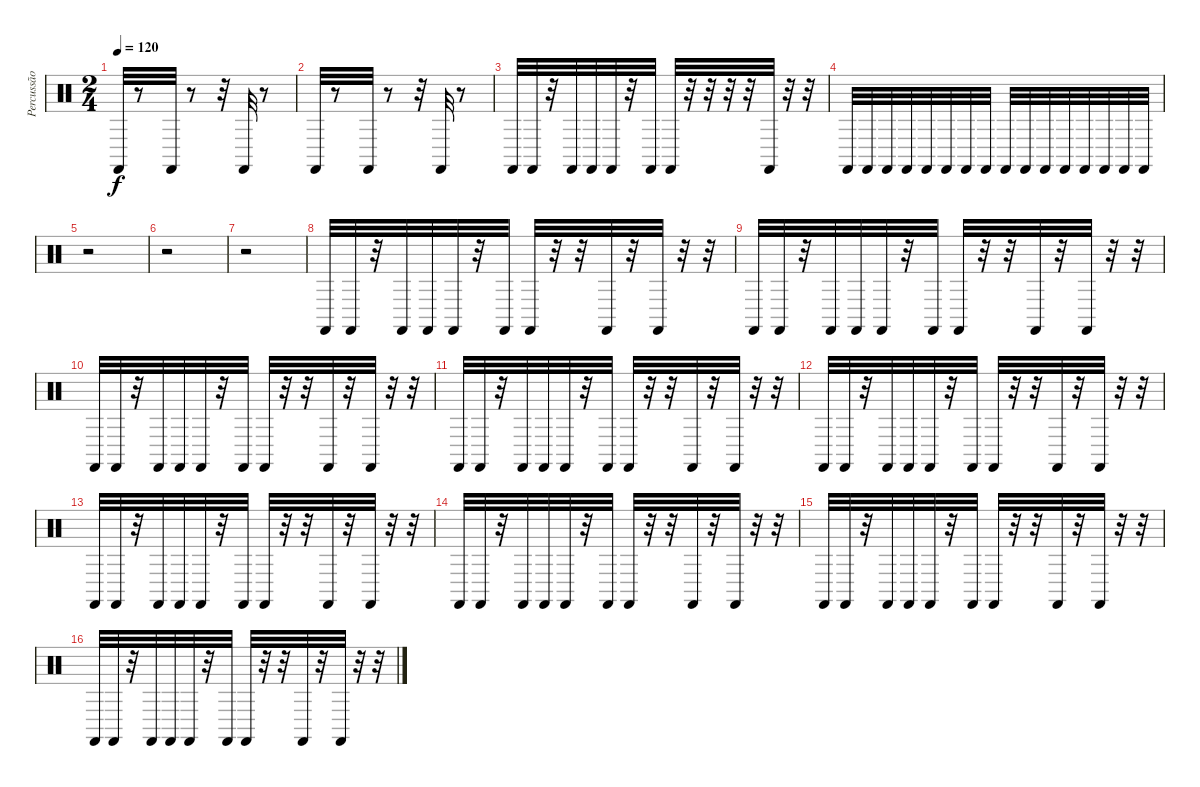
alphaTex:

\track ("Percussão" "Percussão") {instrument percussion}
\staff {score}
\articulation defaults
\ts (2 4)
\tempo 120
\clef neutral
\ks c "Castanets (hit)".32{dy f}
r.8 "Castanets (hit)".32 r.8 r.32 "Castanets (hit)".32 r.8 |
"Castanets (hit)".32 r.8 "Castanets (hit)".32 r.8 r.32 "Castanets (hit)".32 r.8 |
"Castanets (hit)".32 "Castanets (hit)".32 r.32 "Castanets (hit)".32 "Castanets (hit)".32 "Castanets (hit)".32 r.32 "Castanets (hit)".32 "Castanets (hit)".32 r.32 r.32 r.32 r.32 "Castanets (hit)".32 r.32 r.32 |
"Castanets (hit)".32 "Castanets (hit)".32 "Castanets (hit)".32 "Castanets (hit)".32 "Castanets (hit)".32 "Castanets (hit)".32 "Castanets (hit)".32 "Castanets (hit)".32 "Castanets (hit)".32 "Castanets (hit)".32 "Castanets (hit)".32 "Castanets (hit)".32 "Castanets (hit)".32 "Castanets (hit)".32 "Castanets (hit)".32 "Castanets (hit)".32 |
r.2 |
r.2 |
r.2 |
"Castanets (hit)".32 "Castanets (hit)".32 r.32 "Castanets (hit)".32 "Castanets (hit)".32 "Castanets (hit)".32 r.32 "Castanets (hit)".32 "Castanets (hit)".32 r.32 r.32 "Castanets (hit)".32 r.32 "Castanets (hit)".32 r.32 r.32 |
"Castanets (hit)".32 "Castanets (hit)".32 r.32 "Castanets (hit)".32 "Castanets (hit)".32 "Castanets (hit)".32 r.32 "Castanets (hit)".32 "Castanets (hit)".32 r.32 r.32 "Castanets (hit)".32 r.32 "Castanets (hit)".32 r.32 r.32 |
"Castanets (hit)".32 "Castanets (hit)".32 r.32 "Castanets (hit)".32 "Castanets (hit)".32 "Castanets (hit)".32 r.32 "Castanets (hit)".32 "Castanets (hit)".32 r.32 r.32 "Castanets (hit)".32 r.32 "Castanets (hit)".32 r.32 r.32 |
"Castanets (hit)".32 "Castanets (hit)".32 r.32 "Castanets (hit)".32 "Castanets (hit)".32 "Castanets (hit)".32 r.32 "Castanets (hit)".32 "Castanets (hit)".32 r.32 r.32 "Castanets (hit)".32 r.32 "Castanets (hit)".32 r.32 r.32 |
"Castanets (hit)".32 "Castanets (hit)".32 r.32 "Castanets (hit)".32 "Castanets (hit)".32 "Castanets (hit)".32 r.32 "Castanets (hit)".32 "Castanets (hit)".32 r.32 r.32 "Castanets (hit)".32 r.32 "Castanets (hit)".32 r.32 r.32 |
"Castanets (hit)".32 "Castanets (hit)".32 r.32 "Castanets (hit)".32 "Castanets (hit)".32 "Castanets (hit)".32 r.32 "Castanets (hit)".32 "Castanets (hit)".32 r.32 r.32 "Castanets (hit)".32 r.32 "Castanets (hit)".32 r.32 r.32 |
"Castanets (hit)".32 "Castanets (hit)".32 r.32 "Castanets (hit)".32 "Castanets (hit)".32 "Castanets (hit)".32 r.32 "Castanets (hit)".32 "Castanets (hit)".32 r.32 r.32 "Castanets (hit)".32 r.32 "Castanets (hit)".32 r.32 r.32 |
"Castanets (hit)".32 "Castanets (hit)".32 r.32 "Castanets (hit)".32 "Castanets (hit)".32 "Castanets (hit)".32 r.32 "Castanets (hit)".32 "Castanets (hit)".32 r.32 r.32 "Castanets (hit)".32 r.32 "Castanets (hit)".32 r.32 r.32 |
"Castanets (hit)".32 "Castanets (hit)".32 r.32 "Castanets (hit)".32 "Castanets (hit)".32 "Castanets (hit)".32 r.32 "Castanets (hit)".32 "Castanets (hit)".32 r.32 r.32 "Castanets (hit)".32 r.32 "Castanets (hit)".32 r.32 r.32
